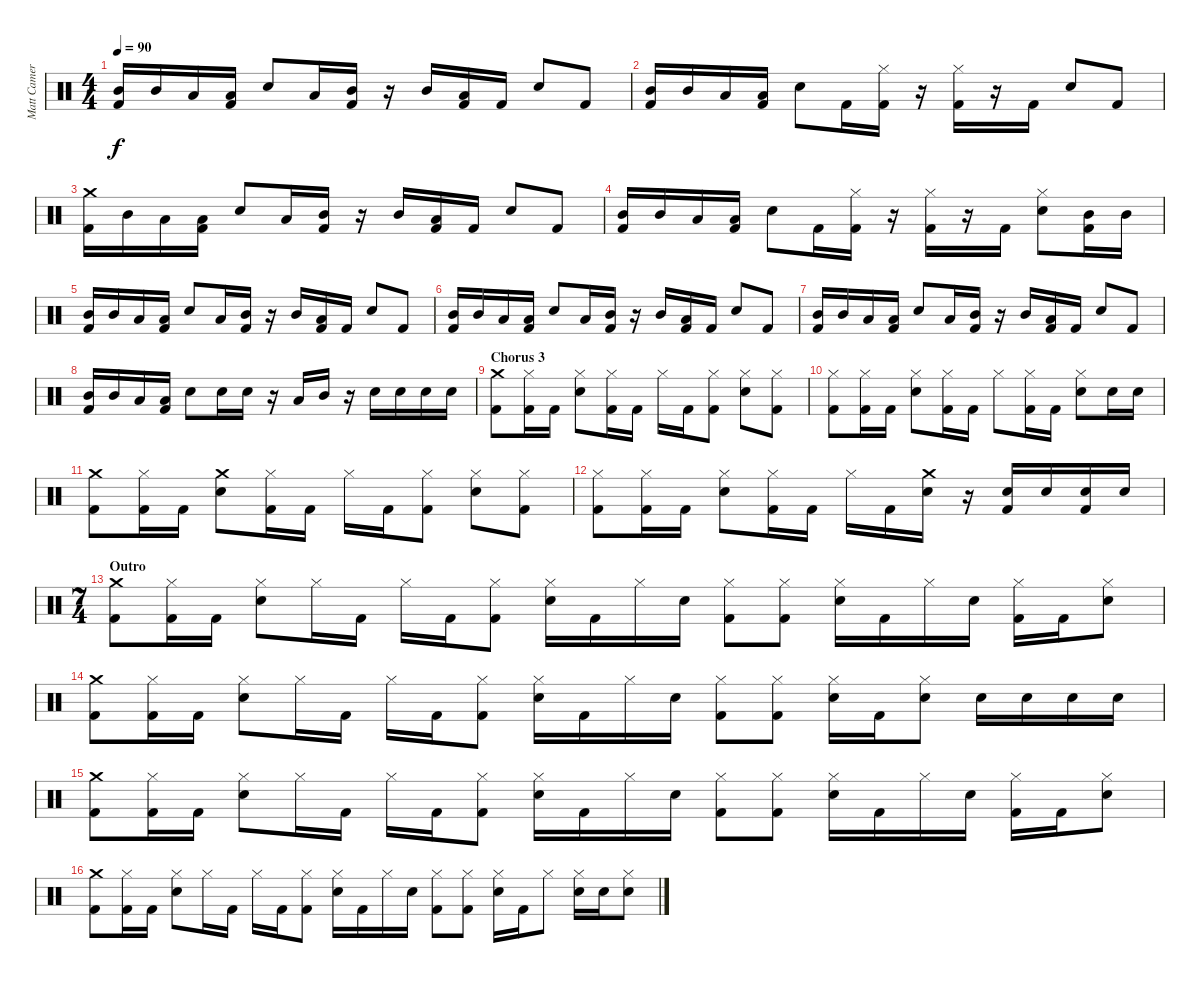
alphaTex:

\track ("Matt Cameron" "Matt Camer") {instrument percussion}
\staff {score}
\articulation defaults
\ts (4 4)
\tempo 90
\clef neutral
\ks c
("Mid Tom (hit)" "Kick (hit) 2").16{dy f} "Mid Tom (hit)".16 "Low Tom (hit)".16 ("Low Tom (hit)" "Kick (hit) 2").16 "Electric Snare (hit)".8 "Low Tom (hit)".16 ("Mid Tom (hit)" "Kick (hit) 2").16 r.16 "Mid Tom (hit)".16 ("Low Tom (hit)" "Kick (hit) 2").16 "Kick (hit) 2".16 "Electric Snare (hit)".8 "Kick (hit) 2".8 |
("Mid Tom (hit)" "Kick (hit) 2").16 "Mid Tom (hit)".16 "Low Tom (hit)".16 ("Low Tom (hit)" "Kick (hit) 2").16 "Electric Snare (hit)".8 "Kick (hit) 2".16 ("Hi-Hat (closed)" "Kick (hit) 2").16 r.16 ("Hi-Hat (closed)" "Kick (hit) 2").16 r.16 "Kick (hit) 2".16 "Electric Snare (hit)".8 "Kick (hit) 2".8 |
("Crash medium (hit)" "Kick (hit) 2").16 "Mid Tom (hit)".16 "Low Tom (hit)".16 ("Low Tom (hit)" "Kick (hit) 2").16 "Electric Snare (hit)".8 "Low Tom (hit)".16 ("Mid Tom (hit)" "Kick (hit) 2").16 r.16 "Mid Tom (hit)".16 ("Low Tom (hit)" "Kick (hit) 2").16 "Kick (hit) 2".16 "Electric Snare (hit)".8 "Kick (hit) 2".8 |
("Mid Tom (hit)" "Kick (hit) 2").16 "Mid Tom (hit)".16 "Low Tom (hit)".16 ("Low Tom (hit)" "Kick (hit) 2").16 "Electric Snare (hit)".8 "Kick (hit) 2".16 ("Hi-Hat (closed)" "Kick (hit) 2").16 r.16 ("Hi-Hat (closed)" "Kick (hit) 2").16 r.16 "Kick (hit) 2".16 ("Hi-Hat (closed)" "Electric Snare (hit)").8 ("Mid Tom (hit)" "Kick (hit) 2").16 "Mid Tom (hit)".16 |
("Mid Tom (hit)" "Kick (hit) 2").16 "Mid Tom (hit)".16 "Low Tom (hit)".16 ("Low Tom (hit)" "Kick (hit) 2").16 "Electric Snare (hit)".8 "Low Tom (hit)".16 ("Mid Tom (hit)" "Kick (hit) 2").16 r.16 "Mid Tom (hit)".16 ("Low Tom (hit)" "Kick (hit) 2").16 "Kick (hit) 2".16 "Electric Snare (hit)".8 "Kick (hit) 2".8 |
("Mid Tom (hit)" "Kick (hit) 2").16 "Mid Tom (hit)".16 "Low Tom (hit)".16 ("Low Tom (hit)" "Kick (hit) 2").16 "Electric Snare (hit)".8 "Low Tom (hit)".16 ("Mid Tom (hit)" "Kick (hit) 2").16 r.16 "Mid Tom (hit)".16 ("Low Tom (hit)" "Kick (hit) 2").16 "Kick (hit) 2".16 "Electric Snare (hit)".8 "Kick (hit) 2".8 |
("Mid Tom (hit)" "Kick (hit) 2").16 "Mid Tom (hit)".16 "Low Tom (hit)".16 ("Low Tom (hit)" "Kick (hit) 2").16 "Electric Snare (hit)".8 "Low Tom (hit)".16 ("Mid Tom (hit)" "Kick (hit) 2").16 r.16 "Mid Tom (hit)".16 ("Low Tom (hit)" "Kick (hit) 2").16 "Kick (hit) 2".16 "Electric Snare (hit)".8 "Kick (hit) 2".8 |
("Mid Tom (hit)" "Kick (hit) 2").16 "Mid Tom (hit)".16 "Low Tom (hit)".16 ("Low Tom (hit)" "Kick (hit) 2").16 "Electric Snare (hit)".8 "Electric Snare (hit)".16 "Electric Snare (hit)".16 r.16 "Low Tom (hit)".16 "Mid Tom (hit)".16 r.16 "Electric Snare (hit)".16 "Electric Snare (hit)".16 "Electric Snare (hit)".16 "Electric Snare (hit)".16 |
\section ("" "Chorus 3")
("Crash medium (hit)" "Kick (hit) 2").8 ("Hi-Hat (closed)" "Kick (hit) 2").16 "Kick (hit) 2".16 ("Hi-Hat (closed)" "Electric Snare (hit)").8 ("Hi-Hat (closed)" "Kick (hit) 2").16 "Kick (hit) 2".16 "Hi-Hat (closed)".16 "Kick (hit) 2".16 ("Hi-Hat (closed)" "Kick (hit) 2").8 ("Hi-Hat (closed)" "Electric Snare (hit)").8 ("Hi-Hat (closed)" "Kick (hit) 2").8 |
("Hi-Hat (closed)" "Kick (hit) 2").8 ("Hi-Hat (closed)" "Kick (hit) 2").16 "Kick (hit) 2".16 ("Hi-Hat (closed)" "Electric Snare (hit)").8 ("Hi-Hat (closed)" "Kick (hit) 2").16 "Kick (hit) 2".16 "Hi-Hat (closed)".8 ("Hi-Hat (closed)" "Kick (hit) 2").16 "Kick (hit) 2".16 ("Hi-Hat (closed)" "Electric Snare (hit)").8 "Electric Snare (hit)".16 "Electric Snare (hit)".16 |
("Crash medium (hit)" "Kick (hit) 2").8 ("Hi-Hat (closed)" "Kick (hit) 2").16 "Kick (hit) 2".16 ("Crash medium (hit)" "Electric Snare (hit)").8 ("Hi-Hat (closed)" "Kick (hit) 2").16 "Kick (hit) 2".16 "Hi-Hat (closed)".16 "Kick (hit) 2".16 ("Hi-Hat (closed)" "Kick (hit) 2").8 ("Hi-Hat (closed)" "Electric Snare (hit)").8 ("Hi-Hat (closed)" "Kick (hit) 2").8 |
("Hi-Hat (closed)" "Kick (hit) 2").8 ("Hi-Hat (closed)" "Kick (hit) 2").16 "Kick (hit) 2".16 ("Hi-Hat (closed)" "Electric Snare (hit)").8 ("Hi-Hat (closed)" "Kick (hit) 2").16 "Kick (hit) 2".16 "Hi-Hat (closed)".16 "Kick (hit) 2".16 ("Crash medium (hit)" "Electric Snare (hit)").16 r.16 ("Electric Snare (hit)" "Kick (hit) 2").16 "Electric Snare (hit)".16 ("Electric Snare (hit)" "Kick (hit) 2").16 "Electric Snare (hit)".16 |
\ts (7 4)
\section ("" "Outro")
("Crash medium (hit)" "Kick (hit) 2").8 ("Hi-Hat (closed)" "Kick (hit) 2").16 "Kick (hit) 2".16 ("Hi-Hat (closed)" "Electric Snare (hit)").8 "Hi-Hat (closed)".16 "Kick (hit) 2".16 "Hi-Hat (closed)".16 "Kick (hit) 2".16 ("Hi-Hat (closed)" "Kick (hit) 2").8 ("Hi-Hat (closed)" "Electric Snare (hit)").16 "Kick (hit) 2".16 "Hi-Hat (closed)".16 "Electric Snare (hit)".16 ("Hi-Hat (closed)" "Kick (hit) 2").8 ("Hi-Hat (closed)" "Kick (hit) 2").8 ("Hi-Hat (closed)" "Electric Snare (hit)").16 "Kick (hit) 2".16 "Hi-Hat (closed)".16 "Electric Snare (hit)".16 ("Hi-Hat (closed)" "Kick (hit) 2").16 "Kick (hit) 2".16 ("Hi-Hat (closed)" "Electric Snare (hit)").8 |
("Crash medium (hit)" "Kick (hit) 2").8 ("Hi-Hat (closed)" "Kick (hit) 2").16 "Kick (hit) 2".16 ("Hi-Hat (closed)" "Electric Snare (hit)").8 "Hi-Hat (closed)".16 "Kick (hit) 2".16 "Hi-Hat (closed)".16 "Kick (hit) 2".16 ("Hi-Hat (closed)" "Kick (hit) 2").8 ("Hi-Hat (closed)" "Electric Snare (hit)").16 "Kick (hit) 2".16 "Hi-Hat (closed)".16 "Electric Snare (hit)".16 ("Hi-Hat (closed)" "Kick (hit) 2").8 ("Hi-Hat (closed)" "Kick (hit) 2").8 ("Hi-Hat (closed)" "Electric Snare (hit)").16 "Kick (hit) 2".16 ("Hi-Hat (closed)" "Electric Snare (hit)").8 "Electric Snare (hit)".16 "Electric Snare (hit)".16 "Electric Snare (hit)".16 "Electric Snare (hit)".16 |
("Crash medium (hit)" "Kick (hit) 2").8 ("Hi-Hat (closed)" "Kick (hit) 2").16 "Kick (hit) 2".16 ("Hi-Hat (closed)" "Electric Snare (hit)").8 "Hi-Hat (closed)".16 "Kick (hit) 2".16 "Hi-Hat (closed)".16 "Kick (hit) 2".16 ("Hi-Hat (closed)" "Kick (hit) 2").8 ("Hi-Hat (closed)" "Electric Snare (hit)").16 "Kick (hit) 2".16 "Hi-Hat (closed)".16 "Electric Snare (hit)".16 ("Hi-Hat (closed)" "Kick (hit) 2").8 ("Hi-Hat (closed)" "Kick (hit) 2").8 ("Hi-Hat (closed)" "Electric Snare (hit)").16 "Kick (hit) 2".16 "Hi-Hat (closed)".16 "Electric Snare (hit)".16 ("Hi-Hat (closed)" "Kick (hit) 2").16 "Kick (hit) 2".16 ("Hi-Hat (closed)" "Electric Snare (hit)").8 |
("Crash medium (hit)" "Kick (hit) 2").8 ("Hi-Hat (closed)" "Kick (hit) 2").16 "Kick (hit) 2".16 ("Hi-Hat (closed)" "Electric Snare (hit)").8 "Hi-Hat (closed)".16 "Kick (hit) 2".16 "Hi-Hat (closed)".16 "Kick (hit) 2".16 ("Hi-Hat (closed)" "Kick (hit) 2").8 ("Hi-Hat (closed)" "Electric Snare (hit)").16 "Kick (hit) 2".16 "Hi-Hat (closed)".16 "Electric Snare (hit)".16 ("Hi-Hat (closed)" "Kick (hit) 2").8 ("Hi-Hat (closed)" "Kick (hit) 2").8 ("Hi-Hat (closed)" "Electric Snare (hit)").16 "Kick (hit) 2".16 "Hi-Hat (closed)".8 ("Hi-Hat (closed)" "Electric Snare (hit)").16 "Electric Snare (hit)".16 ("Hi-Hat (closed)" "Electric Snare (hit)").8
